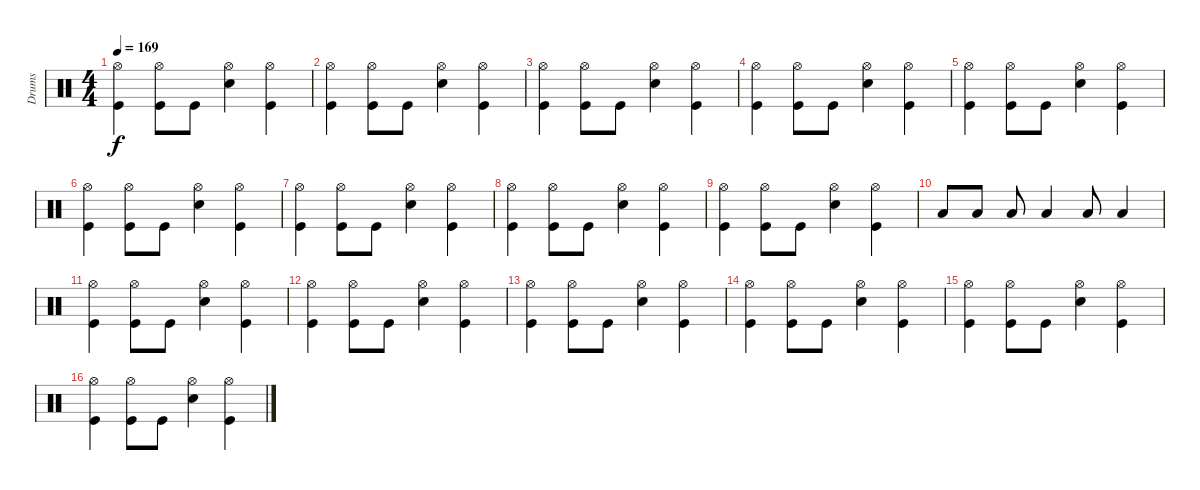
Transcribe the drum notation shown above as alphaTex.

\track ("Drums" "Drums") {instrument percussion}
\staff {score}
\articulation defaults
\ts (4 4)
\tempo 169
\clef neutral
\ks c
("Hi-Hat (open)" "Kick (hit)").4{dy f} ("Hi-Hat (open)" "Kick (hit)").8 "Kick (hit)".8 ("Hi-Hat (open)" "Snare (hit) 2").4 ("Hi-Hat (open)" "Kick (hit)").4 |
("Hi-Hat (open)" "Kick (hit)").4 ("Hi-Hat (open)" "Kick (hit)").8 "Kick (hit)".8 ("Hi-Hat (open)" "Snare (hit) 2").4 ("Hi-Hat (open)" "Kick (hit)").4 |
("Hi-Hat (open)" "Kick (hit)").4 ("Hi-Hat (open)" "Kick (hit)").8 "Kick (hit)".8 ("Hi-Hat (open)" "Snare (hit) 2").4 ("Hi-Hat (open)" "Kick (hit)").4 |
("Hi-Hat (open)" "Kick (hit)").4 ("Hi-Hat (open)" "Kick (hit)").8 "Kick (hit)".8 ("Hi-Hat (open)" "Snare (hit) 2").4 ("Hi-Hat (open)" "Kick (hit)").4 |
("Hi-Hat (open)" "Kick (hit)").4 ("Hi-Hat (open)" "Kick (hit)").8 "Kick (hit)".8 ("Hi-Hat (open)" "Snare (hit) 2").4 ("Hi-Hat (open)" "Kick (hit)").4 |
("Hi-Hat (open)" "Kick (hit)").4 ("Hi-Hat (open)" "Kick (hit)").8 "Kick (hit)".8 ("Hi-Hat (open)" "Snare (hit) 2").4 ("Hi-Hat (open)" "Kick (hit)").4 |
("Hi-Hat (open)" "Kick (hit)").4 ("Hi-Hat (open)" "Kick (hit)").8 "Kick (hit)".8 ("Hi-Hat (open)" "Snare (hit) 2").4 ("Hi-Hat (open)" "Kick (hit)").4 |
("Hi-Hat (open)" "Kick (hit)").4 ("Hi-Hat (open)" "Kick (hit)").8 "Kick (hit)".8 ("Hi-Hat (open)" "Snare (hit) 2").4 ("Hi-Hat (open)" "Kick (hit)").4 |
("Hi-Hat (open)" "Kick (hit)").4 ("Hi-Hat (open)" "Kick (hit)").8 "Kick (hit)".8 ("Hi-Hat (open)" "Snare (hit) 2").4 ("Hi-Hat (open)" "Kick (hit)").4 |
"Low Tom (hit)".8 "Low Tom (hit)".8 "Low Tom (hit)".8 "Low Tom (hit)".4 "Low Tom (hit)".8 "Low Tom (hit)".4 |
("Hi-Hat (open)" "Kick (hit)").4 ("Hi-Hat (open)" "Kick (hit)").8 "Kick (hit)".8 ("Hi-Hat (open)" "Snare (hit) 2").4 ("Hi-Hat (open)" "Kick (hit)").4 |
("Hi-Hat (open)" "Kick (hit)").4 ("Hi-Hat (open)" "Kick (hit)").8 "Kick (hit)".8 ("Hi-Hat (open)" "Snare (hit) 2").4 ("Hi-Hat (open)" "Kick (hit)").4 |
("Hi-Hat (open)" "Kick (hit)").4 ("Hi-Hat (open)" "Kick (hit)").8 "Kick (hit)".8 ("Hi-Hat (open)" "Snare (hit) 2").4 ("Hi-Hat (open)" "Kick (hit)").4 |
("Hi-Hat (open)" "Kick (hit)").4 ("Hi-Hat (open)" "Kick (hit)").8 "Kick (hit)".8 ("Hi-Hat (open)" "Snare (hit) 2").4 ("Hi-Hat (open)" "Kick (hit)").4 |
("Hi-Hat (open)" "Kick (hit)").4 ("Hi-Hat (open)" "Kick (hit)").8 "Kick (hit)".8 ("Hi-Hat (open)" "Snare (hit) 2").4 ("Hi-Hat (open)" "Kick (hit)").4 |
("Hi-Hat (open)" "Kick (hit)").4 ("Hi-Hat (open)" "Kick (hit)").8 "Kick (hit)".8 ("Hi-Hat (open)" "Snare (hit) 2").4 ("Hi-Hat (open)" "Kick (hit)").4
